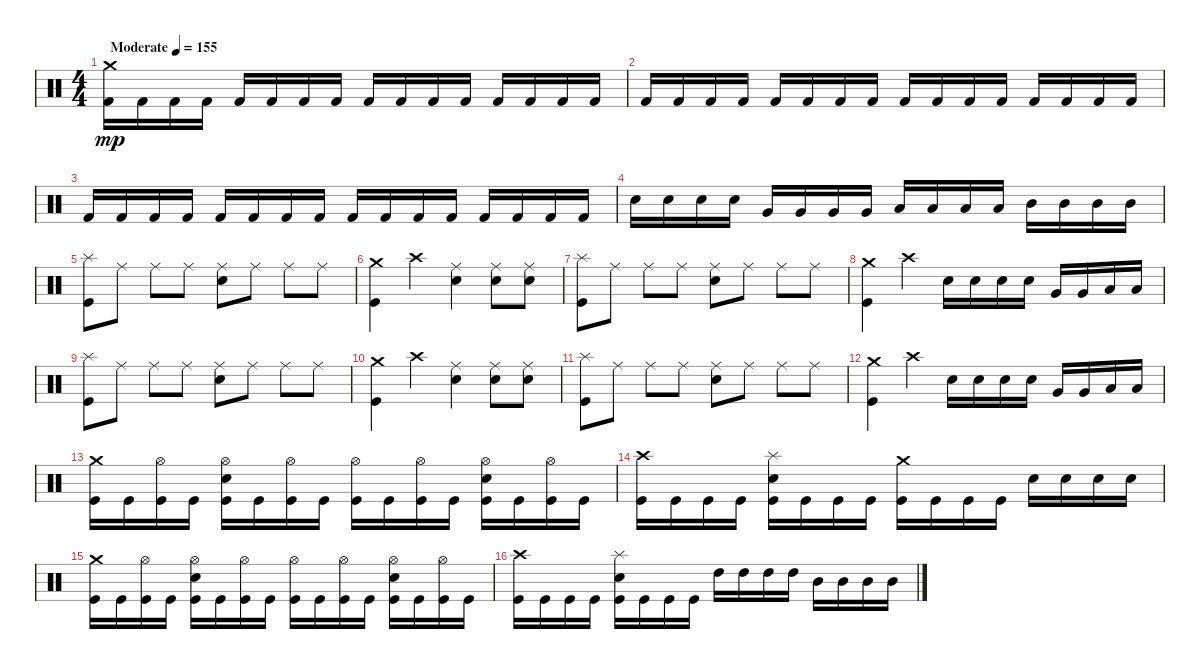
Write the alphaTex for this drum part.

\track "" {instrument percussion}
\staff {score}
\articulation defaults
\ts (4 4)
\tempo (155 "Moderate")
\clef neutral
\ks c
("Kick (hit) 2" "Crash medium (hit)").16{dy mp} "Kick (hit) 2".16 "Kick (hit) 2".16 "Kick (hit) 2".16 "Kick (hit) 2".16 "Kick (hit) 2".16 "Kick (hit) 2".16 "Kick (hit) 2".16 "Kick (hit) 2".16 "Kick (hit) 2".16 "Kick (hit) 2".16 "Kick (hit) 2".16 "Kick (hit) 2".16 "Kick (hit) 2".16 "Kick (hit) 2".16 "Kick (hit) 2".16 |
"Kick (hit) 2".16 "Kick (hit) 2".16 "Kick (hit) 2".16 "Kick (hit) 2".16 "Kick (hit) 2".16 "Kick (hit) 2".16 "Kick (hit) 2".16 "Kick (hit) 2".16 "Kick (hit) 2".16 "Kick (hit) 2".16 "Kick (hit) 2".16 "Kick (hit) 2".16 "Kick (hit) 2".16 "Kick (hit) 2".16 "Kick (hit) 2".16 "Kick (hit) 2".16 |
"Kick (hit) 2".16 "Kick (hit) 2".16 "Kick (hit) 2".16 "Kick (hit) 2".16 "Kick (hit) 2".16 "Kick (hit) 2".16 "Kick (hit) 2".16 "Kick (hit) 2".16 "Kick (hit) 2".16 "Kick (hit) 2".16 "Kick (hit) 2".16 "Kick (hit) 2".16 "Kick (hit) 2".16 "Kick (hit) 2".16 "Kick (hit) 2".16 "Kick (hit) 2".16 |
"Snare (hit) 2".16 "Snare (hit) 2".16 "Snare (hit) 2".16 "Snare (hit) 2".16 "Very Low Tom (hit)".16 "Very Low Tom (hit)".16 "Very Low Tom (hit)".16 "Very Low Tom (hit)".16 "Low Tom (hit)".16 "Low Tom (hit)".16 "Low Tom (hit)".16 "Low Tom (hit)".16 "Mid Tom (hit)".16 "Mid Tom (hit)".16 "Mid Tom (hit)".16 "Mid Tom (hit)".16 |
("Kick (hit)" "Splash (hit)").8 "Ride (middle)".8 "Ride (middle)".8 "Ride (middle)".8 ("Snare (hit) 2" "Ride (middle)").8 "Ride (middle)".8 "Ride (middle)".8 "Ride (middle)".8 |
("Crash medium (hit)" "Kick (hit)").4 "Crash high (hit)".4 ("Snare (hit) 2" "Ride (middle)").4 ("Snare (hit) 2" "Ride (middle)").8 ("Snare (hit) 2" "Ride (middle)").8 |
("Splash (hit)" "Kick (hit)").8 "Ride (middle)".8 "Ride (middle)".8 "Ride (middle)".8 ("Snare (hit) 2" "Ride (middle)").8 "Ride (middle)".8 "Ride (middle)".8 "Ride (middle)".8 |
("Crash medium (hit)" "Kick (hit)").4 "Crash high (hit)".4 "Snare (hit) 2".16 "Snare (hit) 2".16 "Snare (hit) 2".16 "Snare (hit) 2".16 "Very Low Tom (hit)".16 "Very Low Tom (hit)".16 "Low Tom (hit)".16 "Low Tom (hit)".16 |
("Kick (hit)" "Splash (hit)").8 "Ride (middle)".8 "Ride (middle)".8 "Ride (middle)".8 ("Snare (hit) 2" "Ride (middle)").8 "Ride (middle)".8 "Ride (middle)".8 "Ride (middle)".8 |
("Crash medium (hit)" "Kick (hit)").4 "Crash high (hit)".4 ("Snare (hit) 2" "Ride (middle)").4 ("Snare (hit) 2" "Ride (middle)").8 ("Snare (hit) 2" "Ride (middle)").8 |
("Splash (hit)" "Kick (hit)").8 "Ride (middle)".8 "Ride (middle)".8 "Ride (middle)".8 ("Snare (hit) 2" "Ride (middle)").8 "Ride (middle)".8 "Ride (middle)".8 "Ride (middle)".8 |
("Crash medium (hit)" "Kick (hit)").4 "Crash high (hit)".4 "Snare (hit) 2".16 "Snare (hit) 2".16 "Snare (hit) 2".16 "Snare (hit) 2".16 "Very Low Tom (hit)".16 "Very Low Tom (hit)".16 "Low Tom (hit)".16 "Low Tom (hit)".16 |
("Crash medium (hit)" "Kick (hit)").16 "Kick (hit)".16 ("Kick (hit)" "Hi-Hat (open)").16 "Kick (hit)".16 ("Kick (hit)" "Snare (hit) 2" "Hi-Hat (open)").16 "Kick (hit)".16 ("Kick (hit)" "Hi-Hat (open)").16 "Kick (hit)".16 ("Kick (hit)" "Hi-Hat (open)").16 "Kick (hit)".16 ("Kick (hit)" "Hi-Hat (open)").16 "Kick (hit)".16 ("Kick (hit)" "Snare (hit) 2" "Hi-Hat (open)").16 "Kick (hit)".16 ("Kick (hit)" "Hi-Hat (open)").16 "Kick (hit)".16 |
("Kick (hit)" "Crash high (hit)").16 "Kick (hit)".16 "Kick (hit)".16 "Kick (hit)".16 ("Kick (hit)" "Snare (hit) 2" "Splash (hit)").16 "Kick (hit)".16 "Kick (hit)".16 "Kick (hit)".16 ("Kick (hit)" "Crash medium (hit)").16 "Kick (hit)".16 "Kick (hit)".16 "Kick (hit)".16 "Snare (hit) 2".16 "Snare (hit) 2".16 "Snare (hit) 2".16 "Snare (hit) 2".16 |
("Crash medium (hit)" "Kick (hit)").16 "Kick (hit)".16 ("Kick (hit)" "Hi-Hat (open)").16 "Kick (hit)".16 ("Kick (hit)" "Snare (hit) 2" "Hi-Hat (open)").16 "Kick (hit)".16 ("Kick (hit)" "Hi-Hat (open)").16 "Kick (hit)".16 ("Kick (hit)" "Hi-Hat (open)").16 "Kick (hit)".16 ("Kick (hit)" "Hi-Hat (open)").16 "Kick (hit)".16 ("Kick (hit)" "Snare (hit) 2" "Hi-Hat (open)").16 "Kick (hit)".16 ("Kick (hit)" "Hi-Hat (open)").16 "Kick (hit)".16 |
("Kick (hit)" "Crash high (hit)").16 "Kick (hit)".16 "Kick (hit)".16 "Kick (hit)".16 ("Kick (hit)" "Snare (hit) 2" "Splash (hit)").16 "Kick (hit)".16 "Kick (hit)".16 "Kick (hit)".16 "High Tom (hit)".16 "High Tom (hit)".16 "High Tom (hit)".16 "High Tom (hit)".16 "Mid Tom (hit)".16 "Mid Tom (hit)".16 "Mid Tom (hit)".16 "Mid Tom (hit)".16
